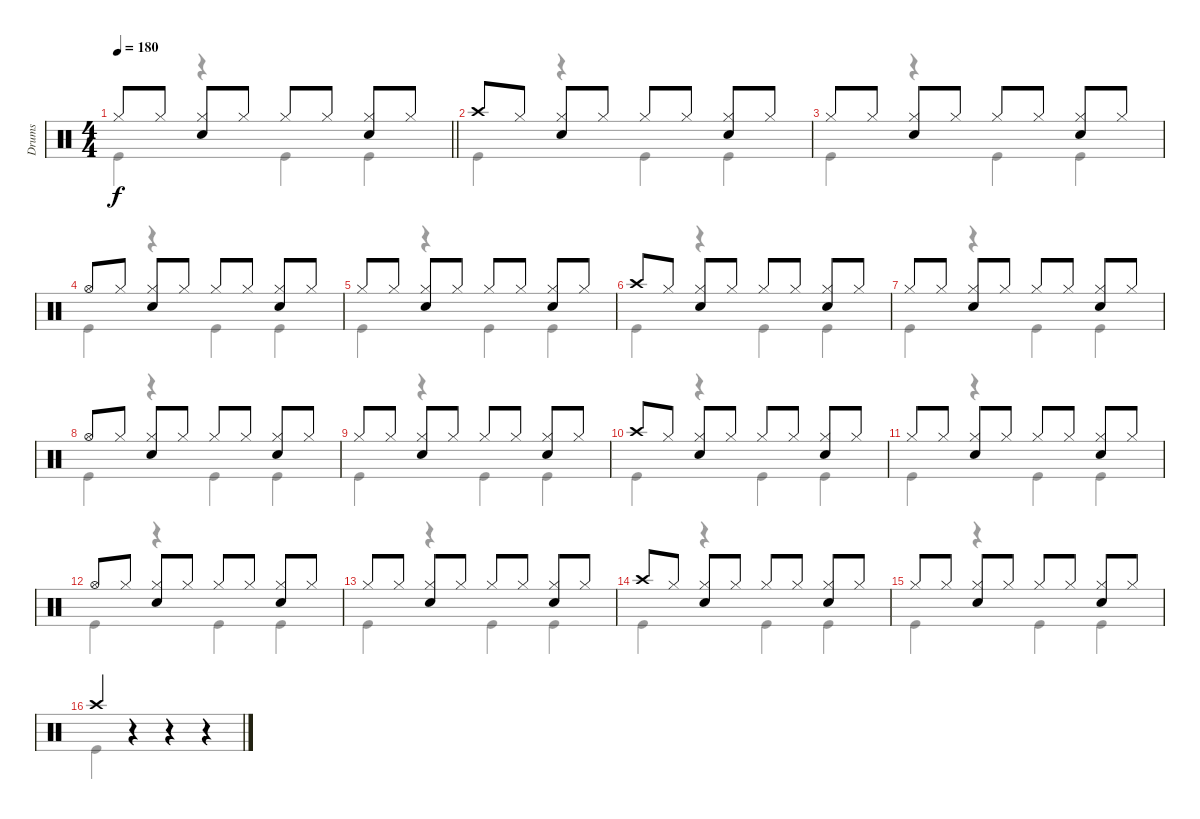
\track ("Drums" "Drums") {instrument percussion}
\staff {score}
\articulation defaults
\voice
\ts (4 4)
\tempo 180
\clef neutral
\barLineRight lightlight
\ks c "Hi-Hat (closed)".8{dy f} "Hi-Hat (closed)".8
("Hi-Hat (closed)" "Snare (hit) 2").8 "Hi-Hat (closed)".8 "Hi-Hat (closed)".8 "Hi-Hat (closed)".8 ("Hi-Hat (closed)" "Snare (hit) 2").8 "Hi-Hat (closed)".8 |
"Crash high (hit)".8 "Hi-Hat (closed)".8 ("Hi-Hat (closed)" "Snare (hit) 2").8 "Hi-Hat (closed)".8 "Hi-Hat (closed)".8 "Hi-Hat (closed)".8 ("Hi-Hat (closed)" "Snare (hit) 2").8 "Hi-Hat (closed)".8 |
"Hi-Hat (closed)".8 "Hi-Hat (closed)".8 ("Hi-Hat (closed)" "Snare (hit) 2").8 "Hi-Hat (closed)".8 "Hi-Hat (closed)".8 "Hi-Hat (closed)".8 ("Hi-Hat (closed)" "Snare (hit) 2").8 "Hi-Hat (closed)".8 |
"Hi-Hat (open)".8 "Hi-Hat (closed)".8 ("Hi-Hat (closed)" "Snare (hit) 2").8 "Hi-Hat (closed)".8 "Hi-Hat (closed)".8 "Hi-Hat (closed)".8 ("Hi-Hat (closed)" "Snare (hit) 2").8 "Hi-Hat (closed)".8 |
"Hi-Hat (closed)".8 "Hi-Hat (closed)".8 ("Hi-Hat (closed)" "Snare (hit) 2").8 "Hi-Hat (closed)".8 "Hi-Hat (closed)".8 "Hi-Hat (closed)".8 ("Hi-Hat (closed)" "Snare (hit) 2").8 "Hi-Hat (closed)".8 |
"Crash high (hit)".8 "Hi-Hat (closed)".8 ("Hi-Hat (closed)" "Snare (hit) 2").8 "Hi-Hat (closed)".8 "Hi-Hat (closed)".8 "Hi-Hat (closed)".8 ("Hi-Hat (closed)" "Snare (hit) 2").8 "Hi-Hat (closed)".8 |
"Hi-Hat (closed)".8 "Hi-Hat (closed)".8 ("Hi-Hat (closed)" "Snare (hit) 2").8 "Hi-Hat (closed)".8 "Hi-Hat (closed)".8 "Hi-Hat (closed)".8 ("Hi-Hat (closed)" "Snare (hit) 2").8 "Hi-Hat (closed)".8 |
"Hi-Hat (open)".8 "Hi-Hat (closed)".8 ("Hi-Hat (closed)" "Snare (hit) 2").8 "Hi-Hat (closed)".8 "Hi-Hat (closed)".8 "Hi-Hat (closed)".8 ("Hi-Hat (closed)" "Snare (hit) 2").8 "Hi-Hat (closed)".8 |
"Hi-Hat (closed)".8 "Hi-Hat (closed)".8 ("Hi-Hat (closed)" "Snare (hit) 2").8 "Hi-Hat (closed)".8 "Hi-Hat (closed)".8 "Hi-Hat (closed)".8 ("Hi-Hat (closed)" "Snare (hit) 2").8 "Hi-Hat (closed)".8 |
"Crash high (hit)".8 "Hi-Hat (closed)".8 ("Hi-Hat (closed)" "Snare (hit) 2").8 "Hi-Hat (closed)".8 "Hi-Hat (closed)".8 "Hi-Hat (closed)".8 ("Hi-Hat (closed)" "Snare (hit) 2").8 "Hi-Hat (closed)".8 |
"Hi-Hat (closed)".8 "Hi-Hat (closed)".8 ("Hi-Hat (closed)" "Snare (hit) 2").8 "Hi-Hat (closed)".8 "Hi-Hat (closed)".8 "Hi-Hat (closed)".8 ("Hi-Hat (closed)" "Snare (hit) 2").8 "Hi-Hat (closed)".8 |
"Hi-Hat (open)".8 "Hi-Hat (closed)".8 ("Hi-Hat (closed)" "Snare (hit) 2").8 "Hi-Hat (closed)".8 "Hi-Hat (closed)".8 "Hi-Hat (closed)".8 ("Hi-Hat (closed)" "Snare (hit) 2").8 "Hi-Hat (closed)".8 |
"Hi-Hat (closed)".8 "Hi-Hat (closed)".8 ("Hi-Hat (closed)" "Snare (hit) 2").8 "Hi-Hat (closed)".8 "Hi-Hat (closed)".8 "Hi-Hat (closed)".8 ("Hi-Hat (closed)" "Snare (hit) 2").8 "Hi-Hat (closed)".8 |
"Crash high (hit)".8 "Hi-Hat (closed)".8 ("Hi-Hat (closed)" "Snare (hit) 2").8 "Hi-Hat (closed)".8 "Hi-Hat (closed)".8 "Hi-Hat (closed)".8 ("Hi-Hat (closed)" "Snare (hit) 2").8 "Hi-Hat (closed)".8 |
"Hi-Hat (closed)".8 "Hi-Hat (closed)".8 ("Hi-Hat (closed)" "Snare (hit) 2").8 "Hi-Hat (closed)".8 "Hi-Hat (closed)".8 "Hi-Hat (closed)".8 ("Hi-Hat (closed)" "Snare (hit) 2").8 "Hi-Hat (closed)".8 |
"Crash high (hit)".4 r.4 r.4 r.4
\voice
\clef neutral
\ottava regular
\simile none
\barLineRight lightlight
\ks c "Kick (hit)".4{dy f}
r.4 "Kick (hit)".4 "Kick (hit)".4 |
"Kick (hit)".4 r.4 "Kick (hit)".4 "Kick (hit)".4 |
"Kick (hit)".4 r.4 "Kick (hit)".4 "Kick (hit)".4 |
"Kick (hit)".4 r.4 "Kick (hit)".4 "Kick (hit)".4 |
"Kick (hit)".4 r.4 "Kick (hit)".4 "Kick (hit)".4 |
"Kick (hit)".4 r.4 "Kick (hit)".4 "Kick (hit)".4 |
"Kick (hit)".4 r.4 "Kick (hit)".4 "Kick (hit)".4 |
"Kick (hit)".4 r.4 "Kick (hit)".4 "Kick (hit)".4 |
"Kick (hit)".4 r.4 "Kick (hit)".4 "Kick (hit)".4 |
"Kick (hit)".4 r.4 "Kick (hit)".4 "Kick (hit)".4 |
"Kick (hit)".4 r.4 "Kick (hit)".4 "Kick (hit)".4 |
"Kick (hit)".4 r.4 "Kick (hit)".4 "Kick (hit)".4 |
"Kick (hit)".4 r.4 "Kick (hit)".4 "Kick (hit)".4 |
"Kick (hit)".4 r.4 "Kick (hit)".4 "Kick (hit)".4 |
"Kick (hit)".4 r.4 "Kick (hit)".4 "Kick (hit)".4 |
"Kick (hit)".4 r.4 r.4 r.4
